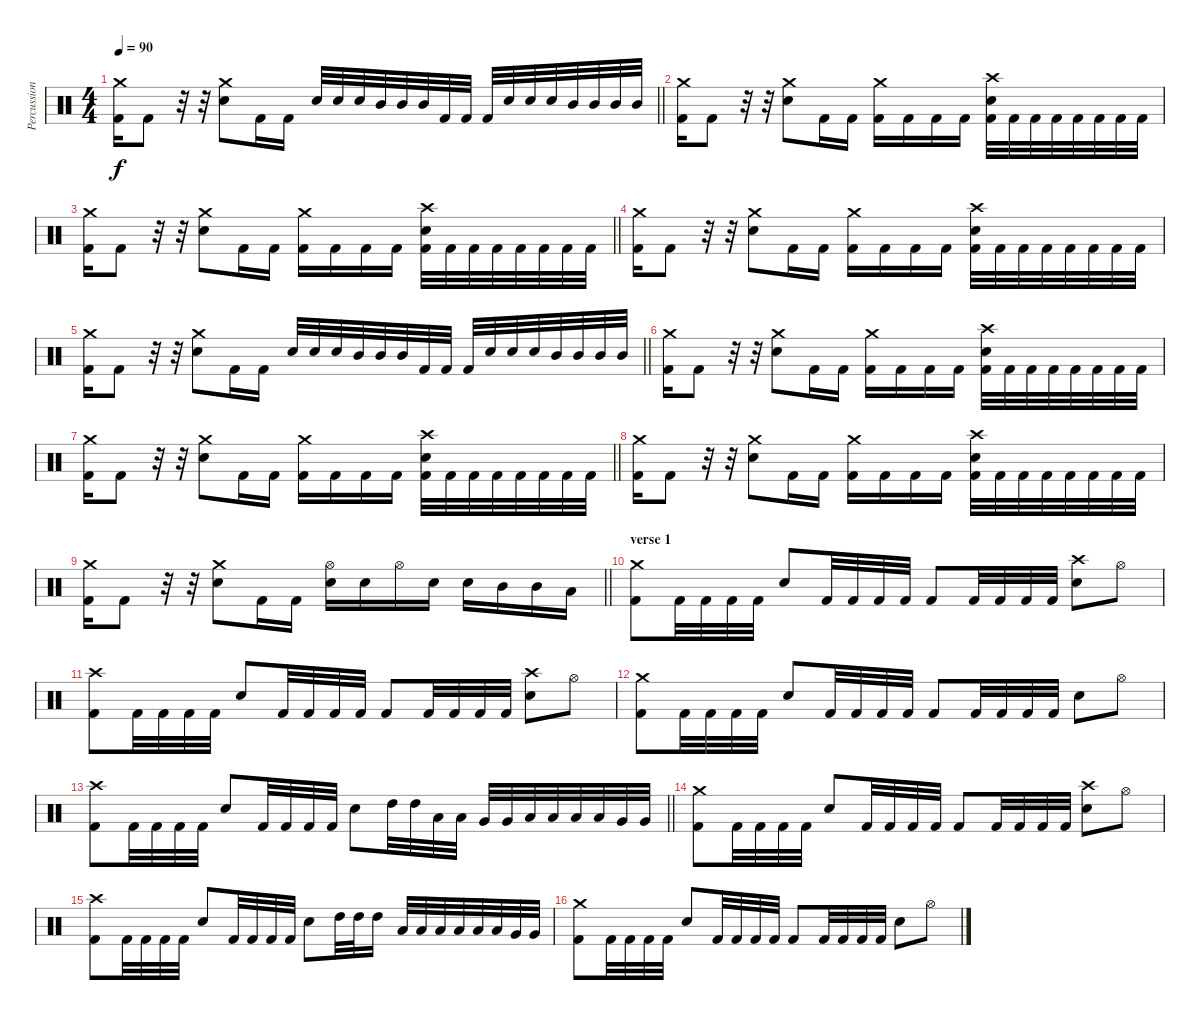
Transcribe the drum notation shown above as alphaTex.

\track ("Percussion" "Percussion") {instrument percussion}
\staff {score}
\articulation defaults
\ts (4 4)
\tempo 90
\clef neutral
\barLineRight lightlight
\ks c
("Crash medium (hit)" "Kick (hit) 2").16{dy f} "Kick (hit) 2".8 r.32 r.32 ("Crash medium (hit)" "Electric Snare (hit)").8 "Kick (hit) 2".16 "Kick (hit) 2".16 "Snare (hit) 2".32 "Snare (hit) 2".32 "Snare (hit) 2".32 "Mid Tom (hit)".32 "Mid Tom (hit)".32 "Mid Tom (hit)".32 "Kick (hit) 2".32 "Kick (hit) 2".32 "Kick (hit) 2".32 "Snare (hit) 2".32 "Snare (hit) 2".32 "Snare (hit) 2".32 "Mid Tom (hit)".32 "Mid Tom (hit)".32 "Mid Tom (hit)".32 "Mid Tom (hit)".32 |
("Crash medium (hit)" "Kick (hit) 2").16 "Kick (hit) 2".8 r.32 r.32 ("Crash medium (hit)" "Electric Snare (hit)").8 "Kick (hit) 2".16 "Kick (hit) 2".16 ("Crash medium (hit)" "Kick (hit) 2").16 "Kick (hit) 2".16 "Kick (hit) 2".16 "Kick (hit) 2".16 ("Crash high (hit)" "Electric Snare (hit)" "Kick (hit) 2").32 "Kick (hit) 2".32 "Kick (hit) 2".32 "Kick (hit) 2".32 "Kick (hit) 2".32 "Kick (hit) 2".32 "Kick (hit) 2".32 "Kick (hit) 2".32 |
\barLineRight lightlight
("Crash medium (hit)" "Kick (hit) 2").16 "Kick (hit) 2".8 r.32 r.32 ("Crash medium (hit)" "Electric Snare (hit)").8 "Kick (hit) 2".16 "Kick (hit) 2".16 ("Crash medium (hit)" "Kick (hit) 2").16 "Kick (hit) 2".16 "Kick (hit) 2".16 "Kick (hit) 2".16 ("Crash high (hit)" "Electric Snare (hit)" "Kick (hit) 2").32 "Kick (hit) 2".32 "Kick (hit) 2".32 "Kick (hit) 2".32 "Kick (hit) 2".32 "Kick (hit) 2".32 "Kick (hit) 2".32 "Kick (hit) 2".32 |
("Crash medium (hit)" "Kick (hit) 2").16 "Kick (hit) 2".8 r.32 r.32 ("Crash medium (hit)" "Electric Snare (hit)").8 "Kick (hit) 2".16 "Kick (hit) 2".16 ("Crash medium (hit)" "Kick (hit) 2").16 "Kick (hit) 2".16 "Kick (hit) 2".16 "Kick (hit) 2".16 ("Crash high (hit)" "Electric Snare (hit)" "Kick (hit) 2").32 "Kick (hit) 2".32 "Kick (hit) 2".32 "Kick (hit) 2".32 "Kick (hit) 2".32 "Kick (hit) 2".32 "Kick (hit) 2".32 "Kick (hit) 2".32 |
\barLineRight lightlight
("Crash medium (hit)" "Kick (hit) 2").16 "Kick (hit) 2".8 r.32 r.32 ("Crash medium (hit)" "Electric Snare (hit)").8 "Kick (hit) 2".16 "Kick (hit) 2".16 "Snare (hit) 2".32 "Snare (hit) 2".32 "Snare (hit) 2".32 "Mid Tom (hit)".32 "Mid Tom (hit)".32 "Mid Tom (hit)".32 "Kick (hit) 2".32 "Kick (hit) 2".32 "Kick (hit) 2".32 "Snare (hit) 2".32 "Snare (hit) 2".32 "Snare (hit) 2".32 "Mid Tom (hit)".32 "Mid Tom (hit)".32 "Mid Tom (hit)".32 "Mid Tom (hit)".32 |
("Crash medium (hit)" "Kick (hit) 2").16 "Kick (hit) 2".8 r.32 r.32 ("Crash medium (hit)" "Electric Snare (hit)").8 "Kick (hit) 2".16 "Kick (hit) 2".16 ("Crash medium (hit)" "Kick (hit) 2").16 "Kick (hit) 2".16 "Kick (hit) 2".16 "Kick (hit) 2".16 ("Crash high (hit)" "Electric Snare (hit)" "Kick (hit) 2").32 "Kick (hit) 2".32 "Kick (hit) 2".32 "Kick (hit) 2".32 "Kick (hit) 2".32 "Kick (hit) 2".32 "Kick (hit) 2".32 "Kick (hit) 2".32 |
\barLineRight lightlight
("Crash medium (hit)" "Kick (hit) 2").16 "Kick (hit) 2".8 r.32 r.32 ("Crash medium (hit)" "Electric Snare (hit)").8 "Kick (hit) 2".16 "Kick (hit) 2".16 ("Crash medium (hit)" "Kick (hit) 2").16 "Kick (hit) 2".16 "Kick (hit) 2".16 "Kick (hit) 2".16 ("Crash high (hit)" "Electric Snare (hit)" "Kick (hit) 2").32 "Kick (hit) 2".32 "Kick (hit) 2".32 "Kick (hit) 2".32 "Kick (hit) 2".32 "Kick (hit) 2".32 "Kick (hit) 2".32 "Kick (hit) 2".32 |
("Crash medium (hit)" "Kick (hit) 2").16 "Kick (hit) 2".8 r.32 r.32 ("Crash medium (hit)" "Electric Snare (hit)").8 "Kick (hit) 2".16 "Kick (hit) 2".16 ("Crash medium (hit)" "Kick (hit) 2").16 "Kick (hit) 2".16 "Kick (hit) 2".16 "Kick (hit) 2".16 ("Crash high (hit)" "Electric Snare (hit)" "Kick (hit) 2").32 "Kick (hit) 2".32 "Kick (hit) 2".32 "Kick (hit) 2".32 "Kick (hit) 2".32 "Kick (hit) 2".32 "Kick (hit) 2".32 "Kick (hit) 2".32 |
\barLineRight lightlight
("Crash medium (hit)" "Kick (hit) 2").16 "Kick (hit) 2".8 r.32 r.32 ("Crash medium (hit)" "Electric Snare (hit)").8 "Kick (hit) 2".16 "Kick (hit) 2".16 ("Snare (hit) 2" "Hi-Hat (open)").16 "Snare (hit) 2".16 "Hi-Hat (open)".16 "Snare (hit) 2".16 "Snare (hit) 2".16 "Mid Tom (hit)".16 "Mid Tom (hit)".16 "Low Tom (hit)".16 |
\section ("" "verse 1")
("Crash medium (hit)" "Kick (hit) 2").8 "Kick (hit) 2".32 "Kick (hit) 2".32 "Kick (hit) 2".32 "Kick (hit) 2".32 "Electric Snare (hit)".8 "Kick (hit) 2".32 "Kick (hit) 2".32 "Kick (hit) 2".32 "Kick (hit) 2".32 "Kick (hit) 2".8 "Kick (hit) 2".32 "Kick (hit) 2".32 "Kick (hit) 2".32 "Kick (hit) 2".32 ("Crash high (hit)" "Electric Snare (hit)").8 "Hi-Hat (open)".8 |
("Crash high (hit)" "Kick (hit) 2").8 "Kick (hit) 2".32 "Kick (hit) 2".32 "Kick (hit) 2".32 "Kick (hit) 2".32 "Electric Snare (hit)".8 "Kick (hit) 2".32 "Kick (hit) 2".32 "Kick (hit) 2".32 "Kick (hit) 2".32 "Kick (hit) 2".8 "Kick (hit) 2".32 "Kick (hit) 2".32 "Kick (hit) 2".32 "Kick (hit) 2".32 ("Crash high (hit)" "Electric Snare (hit)").8 "Hi-Hat (open)".8 |
("Crash medium (hit)" "Kick (hit) 2").8 "Kick (hit) 2".32 "Kick (hit) 2".32 "Kick (hit) 2".32 "Kick (hit) 2".32 "Electric Snare (hit)".8 "Kick (hit) 2".32 "Kick (hit) 2".32 "Kick (hit) 2".32 "Kick (hit) 2".32 "Kick (hit) 2".8 "Kick (hit) 2".32 "Kick (hit) 2".32 "Kick (hit) 2".32 "Kick (hit) 2".32 "Electric Snare (hit)".8 "Hi-Hat (open)".8 |
\barLineRight lightlight
("Crash high (hit)" "Kick (hit) 2").8 "Kick (hit) 2".32 "Kick (hit) 2".32 "Kick (hit) 2".32 "Kick (hit) 2".32 "Electric Snare (hit)".8 "Kick (hit) 2".32 "Kick (hit) 2".32 "Kick (hit) 2".32 "Kick (hit) 2".32 "Electric Snare (hit)".8 "High Tom (hit)".32 "High Tom (hit)".32 "Low Tom (hit)".32 "Low Tom (hit)".32 "Very Low Tom (hit)".32 "Very Low Tom (hit)".32 "Low Floor Tom (hit)".32 "Low Floor Tom (hit)".32 "Low Floor Tom (hit)".32 "Low Floor Tom (hit)".32 "Very Low Tom (hit)".32 "Very Low Tom (hit)".32 |
("Crash medium (hit)" "Kick (hit) 2").8 "Kick (hit) 2".32 "Kick (hit) 2".32 "Kick (hit) 2".32 "Kick (hit) 2".32 "Electric Snare (hit)".8 "Kick (hit) 2".32 "Kick (hit) 2".32 "Kick (hit) 2".32 "Kick (hit) 2".32 "Kick (hit) 2".8 "Kick (hit) 2".32 "Kick (hit) 2".32 "Kick (hit) 2".32 "Kick (hit) 2".32 ("Crash high (hit)" "Electric Snare (hit)").8 "Hi-Hat (open)".8 |
("Crash high (hit)" "Kick (hit) 2").8 "Kick (hit) 2".32 "Kick (hit) 2".32 "Kick (hit) 2".32 "Kick (hit) 2".32 "Electric Snare (hit)".8 "Kick (hit) 2".32 "Kick (hit) 2".32 "Kick (hit) 2".32 "Kick (hit) 2".32 "Electric Snare (hit)".8 "High Tom (hit)".32 "High Tom (hit)".32 "High Tom (hit)".16 "Low Tom (hit)".32 "Low Tom (hit)".32 "Low Tom (hit)".32 "Low Floor Tom (hit)".32 "Low Floor Tom (hit)".32 "Low Floor Tom (hit)".32 "Very Low Tom (hit)".32 "Very Low Tom (hit)".32 |
("Crash medium (hit)" "Kick (hit) 2").8 "Kick (hit) 2".32 "Kick (hit) 2".32 "Kick (hit) 2".32 "Kick (hit) 2".32 "Electric Snare (hit)".8 "Kick (hit) 2".32 "Kick (hit) 2".32 "Kick (hit) 2".32 "Kick (hit) 2".32 "Kick (hit) 2".8 "Kick (hit) 2".32 "Kick (hit) 2".32 "Kick (hit) 2".32 "Kick (hit) 2".32 "Electric Snare (hit)".8 "Hi-Hat (open)".8
